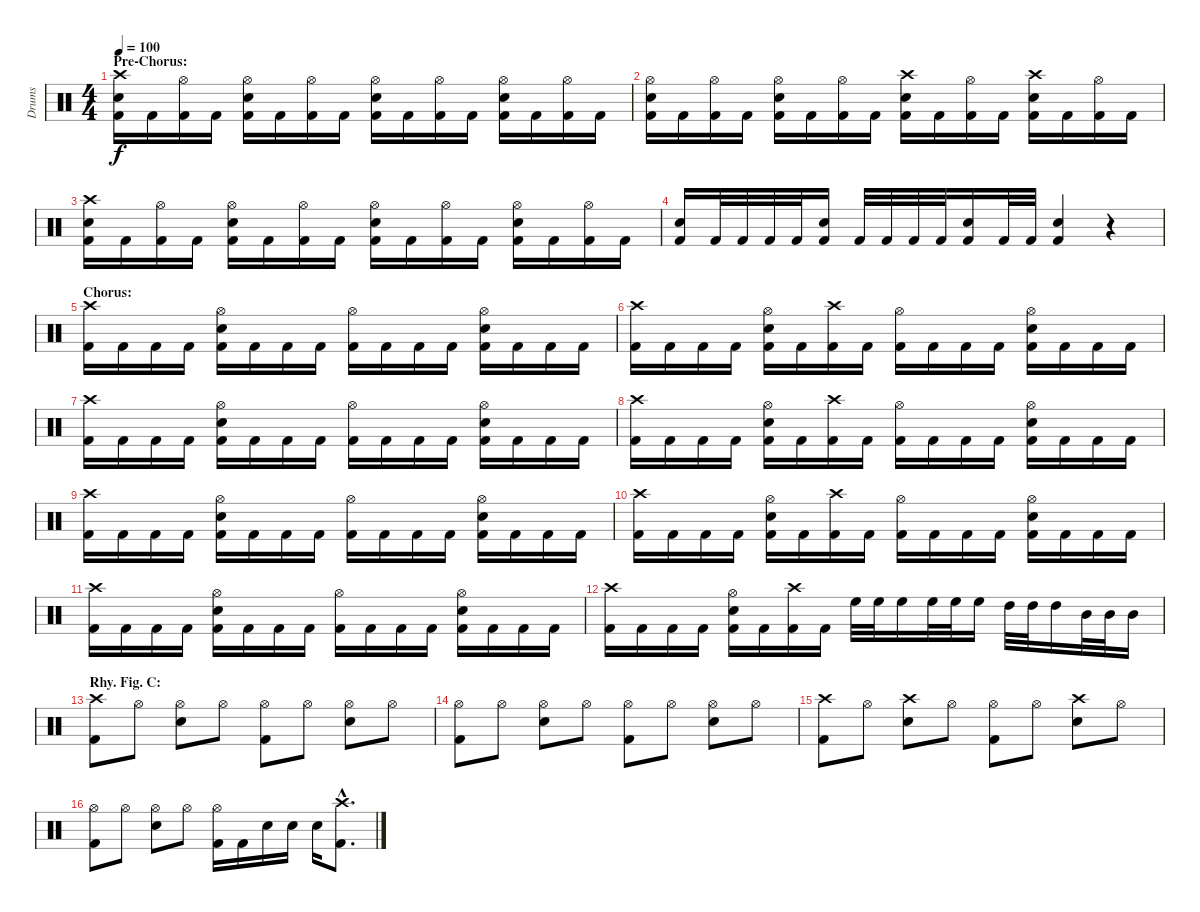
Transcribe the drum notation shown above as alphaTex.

\track ("Drums" "Drums") {instrument percussion}
\staff {score}
\articulation defaults
\ts (4 4)
\section ("" "Pre-Chorus:")
\tempo 100
\clef neutral
\ks c
("Crash high (hit)" "Electric Snare (hit)" "Kick (hit) 2").16{dy f} "Kick (hit) 2".16 ("Hi-Hat (open)" "Kick (hit) 2").16 "Kick (hit) 2".16 ("Hi-Hat (open)" "Electric Snare (hit)" "Kick (hit) 2").16 "Kick (hit) 2".16 ("Hi-Hat (open)" "Kick (hit) 2").16 "Kick (hit) 2".16 ("Hi-Hat (open)" "Electric Snare (hit)" "Kick (hit) 2").16 "Kick (hit) 2".16 ("Hi-Hat (open)" "Kick (hit) 2").16 "Kick (hit) 2".16 ("Hi-Hat (open)" "Electric Snare (hit)" "Kick (hit) 2").16 "Kick (hit) 2".16 ("Hi-Hat (open)" "Kick (hit) 2").16 "Kick (hit) 2".16 |
("Hi-Hat (open)" "Electric Snare (hit)" "Kick (hit) 2").16 "Kick (hit) 2".16 ("Hi-Hat (open)" "Kick (hit) 2").16 "Kick (hit) 2".16 ("Hi-Hat (open)" "Electric Snare (hit)" "Kick (hit) 2").16 "Kick (hit) 2".16 ("Hi-Hat (open)" "Kick (hit) 2").16 "Kick (hit) 2".16 ("Crash high (hit)" "Electric Snare (hit)" "Kick (hit) 2").16 "Kick (hit) 2".16 ("Hi-Hat (open)" "Kick (hit) 2").16 "Kick (hit) 2".16 ("Crash high (hit)" "Electric Snare (hit)" "Kick (hit) 2").16 "Kick (hit) 2".16 ("Hi-Hat (open)" "Kick (hit) 2").16 "Kick (hit) 2".16 |
("Crash high (hit)" "Electric Snare (hit)" "Kick (hit) 2").16 "Kick (hit) 2".16 ("Hi-Hat (open)" "Kick (hit) 2").16 "Kick (hit) 2".16 ("Hi-Hat (open)" "Electric Snare (hit)" "Kick (hit) 2").16 "Kick (hit) 2".16 ("Hi-Hat (open)" "Kick (hit) 2").16 "Kick (hit) 2".16 ("Hi-Hat (open)" "Electric Snare (hit)" "Kick (hit) 2").16 "Kick (hit) 2".16 ("Hi-Hat (open)" "Kick (hit) 2").16 "Kick (hit) 2".16 ("Hi-Hat (open)" "Electric Snare (hit)" "Kick (hit) 2").16 "Kick (hit) 2".16 ("Hi-Hat (open)" "Kick (hit) 2").16 "Kick (hit) 2".16 |
("Electric Snare (hit)" "Kick (hit) 2").16 "Kick (hit) 2".32 "Kick (hit) 2".32 "Kick (hit) 2".32 "Kick (hit) 2".32 ("Electric Snare (hit)" "Kick (hit) 2").16 "Kick (hit) 2".32 "Kick (hit) 2".32 "Kick (hit) 2".32 "Kick (hit) 2".32 ("Electric Snare (hit)" "Kick (hit) 2").16 "Kick (hit) 2".32 "Kick (hit) 2".32 ("Electric Snare (hit)" "Kick (hit) 2").4 r.4 |
\section ("" "Chorus:")
("Crash high (hit)" "Kick (hit) 2").16 "Kick (hit) 2".16 "Kick (hit) 2".16 "Kick (hit) 2".16 ("Hi-Hat (open)" "Electric Snare (hit)" "Kick (hit) 2").16 "Kick (hit) 2".16 "Kick (hit) 2".16 "Kick (hit) 2".16 ("Hi-Hat (open)" "Kick (hit) 2").16 "Kick (hit) 2".16 "Kick (hit) 2".16 "Kick (hit) 2".16 ("Hi-Hat (open)" "Electric Snare (hit)" "Kick (hit) 2").16 "Kick (hit) 2".16 "Kick (hit) 2".16 "Kick (hit) 2".16 |
("Crash high (hit)" "Kick (hit) 2").16 "Kick (hit) 2".16 "Kick (hit) 2".16 "Kick (hit) 2".16 ("Hi-Hat (open)" "Electric Snare (hit)" "Kick (hit) 2").16 "Kick (hit) 2".16 ("Crash high (hit)" "Kick (hit) 2").16 "Kick (hit) 2".16 ("Hi-Hat (open)" "Kick (hit) 2").16 "Kick (hit) 2".16 "Kick (hit) 2".16 "Kick (hit) 2".16 ("Hi-Hat (open)" "Electric Snare (hit)" "Kick (hit) 2").16 "Kick (hit) 2".16 "Kick (hit) 2".16 "Kick (hit) 2".16 |
("Crash high (hit)" "Kick (hit) 2").16 "Kick (hit) 2".16 "Kick (hit) 2".16 "Kick (hit) 2".16 ("Hi-Hat (open)" "Electric Snare (hit)" "Kick (hit) 2").16 "Kick (hit) 2".16 "Kick (hit) 2".16 "Kick (hit) 2".16 ("Hi-Hat (open)" "Kick (hit) 2").16 "Kick (hit) 2".16 "Kick (hit) 2".16 "Kick (hit) 2".16 ("Hi-Hat (open)" "Electric Snare (hit)" "Kick (hit) 2").16 "Kick (hit) 2".16 "Kick (hit) 2".16 "Kick (hit) 2".16 |
("Crash high (hit)" "Kick (hit) 2").16 "Kick (hit) 2".16 "Kick (hit) 2".16 "Kick (hit) 2".16 ("Hi-Hat (open)" "Electric Snare (hit)" "Kick (hit) 2").16 "Kick (hit) 2".16 ("Crash high (hit)" "Kick (hit) 2").16 "Kick (hit) 2".16 ("Hi-Hat (open)" "Kick (hit) 2").16 "Kick (hit) 2".16 "Kick (hit) 2".16 "Kick (hit) 2".16 ("Hi-Hat (open)" "Electric Snare (hit)" "Kick (hit) 2").16 "Kick (hit) 2".16 "Kick (hit) 2".16 "Kick (hit) 2".16 |
("Crash high (hit)" "Kick (hit) 2").16 "Kick (hit) 2".16 "Kick (hit) 2".16 "Kick (hit) 2".16 ("Hi-Hat (open)" "Electric Snare (hit)" "Kick (hit) 2").16 "Kick (hit) 2".16 "Kick (hit) 2".16 "Kick (hit) 2".16 ("Hi-Hat (open)" "Kick (hit) 2").16 "Kick (hit) 2".16 "Kick (hit) 2".16 "Kick (hit) 2".16 ("Hi-Hat (open)" "Electric Snare (hit)" "Kick (hit) 2").16 "Kick (hit) 2".16 "Kick (hit) 2".16 "Kick (hit) 2".16 |
("Crash high (hit)" "Kick (hit) 2").16 "Kick (hit) 2".16 "Kick (hit) 2".16 "Kick (hit) 2".16 ("Hi-Hat (open)" "Electric Snare (hit)" "Kick (hit) 2").16 "Kick (hit) 2".16 ("Crash high (hit)" "Kick (hit) 2").16 "Kick (hit) 2".16 ("Hi-Hat (open)" "Kick (hit) 2").16 "Kick (hit) 2".16 "Kick (hit) 2".16 "Kick (hit) 2".16 ("Hi-Hat (open)" "Electric Snare (hit)" "Kick (hit) 2").16 "Kick (hit) 2".16 "Kick (hit) 2".16 "Kick (hit) 2".16 |
("Crash high (hit)" "Kick (hit) 2").16 "Kick (hit) 2".16 "Kick (hit) 2".16 "Kick (hit) 2".16 ("Hi-Hat (open)" "Electric Snare (hit)" "Kick (hit) 2").16 "Kick (hit) 2".16 "Kick (hit) 2".16 "Kick (hit) 2".16 ("Hi-Hat (open)" "Kick (hit) 2").16 "Kick (hit) 2".16 "Kick (hit) 2".16 "Kick (hit) 2".16 ("Hi-Hat (open)" "Electric Snare (hit)" "Kick (hit) 2").16 "Kick (hit) 2".16 "Kick (hit) 2".16 "Kick (hit) 2".16 |
("Crash high (hit)" "Kick (hit) 2").16 "Kick (hit) 2".16 "Kick (hit) 2".16 "Kick (hit) 2".16 ("Hi-Hat (open)" "Electric Snare (hit)" "Kick (hit) 2").16 "Kick (hit) 2".16 ("Crash high (hit)" "Kick (hit) 2").16 "Kick (hit) 2".16 "High Floor Tom (hit)".32 "High Floor Tom (hit)".32 "High Floor Tom (hit)".16 "High Floor Tom (hit)".32 "High Floor Tom (hit)".32 "High Floor Tom (hit)".16 "High Tom (hit)".32 "High Tom (hit)".32 "High Tom (hit)".16 "Mid Tom (hit)".32 "Mid Tom (hit)".32 "Mid Tom (hit)".16 |
\section ("" "Rhy. Fig. C:")
("Crash high (hit)" "Kick (hit) 2").8 "Hi-Hat (open)".8 ("Hi-Hat (open)" "Electric Snare (hit)").8 "Hi-Hat (open)".8 ("Hi-Hat (open)" "Kick (hit) 2").8 "Hi-Hat (open)".8 ("Hi-Hat (open)" "Electric Snare (hit)").8 "Hi-Hat (open)".8 |
("Hi-Hat (open)" "Kick (hit) 2").8 "Hi-Hat (open)".8 ("Hi-Hat (open)" "Electric Snare (hit)").8 "Hi-Hat (open)".8 ("Hi-Hat (open)" "Kick (hit) 2").8 "Hi-Hat (open)".8 ("Hi-Hat (open)" "Electric Snare (hit)").8 "Hi-Hat (open)".8 |
("Crash high (hit)" "Kick (hit) 2").8 "Hi-Hat (open)".8 ("Crash high (hit)" "Electric Snare (hit)").8 "Hi-Hat (open)".8 ("Hi-Hat (open)" "Kick (hit) 2").8 "Hi-Hat (open)".8 ("Crash high (hit)" "Electric Snare (hit)").8 "Hi-Hat (open)".8 |
("Hi-Hat (open)" "Kick (hit) 2").8 "Hi-Hat (open)".8 ("Hi-Hat (open)" "Electric Snare (hit)").8 "Hi-Hat (open)".8 ("Hi-Hat (open)" "Kick (hit) 2").16 "Kick (hit) 2".16 "Electric Snare (hit)".16 "Electric Snare (hit)".16 "Electric Snare (hit)".16 ("Crash high (hit)"{hac} "Kick (hit) 2"{hac}).8{d}
